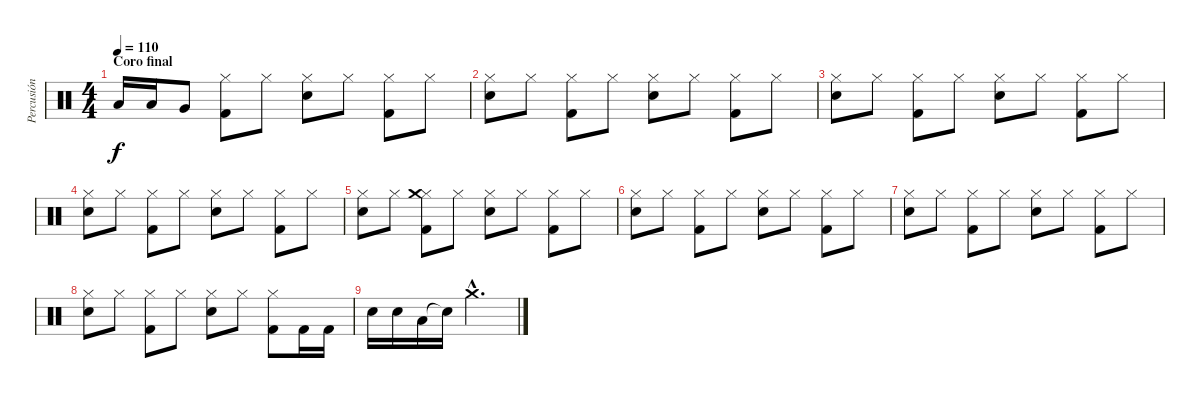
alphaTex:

\track ("Percusión" "Percusión") {instrument percussion}
\staff {score}
\articulation defaults
\ts (4 4)
\section ("" "Coro final")
\tempo 110
\clef neutral
\ks c "Low Tom (hit)".16{dy f} "Low Tom (hit)".16 "Very Low Tom (hit)".8
("Hi-Hat (closed)" "Kick (hit) 2").8 "Hi-Hat (closed)".8 ("Hi-Hat (closed)" "Electric Snare (hit)").8 "Hi-Hat (closed)".8 ("Hi-Hat (closed)" "Kick (hit) 2").8 "Hi-Hat (closed)".8 |
("Hi-Hat (closed)" "Electric Snare (hit)").8 "Hi-Hat (closed)".8 ("Hi-Hat (closed)" "Kick (hit) 2").8 "Hi-Hat (closed)".8 ("Hi-Hat (closed)" "Electric Snare (hit)").8 "Hi-Hat (closed)".8 ("Hi-Hat (closed)" "Kick (hit) 2").8 "Hi-Hat (closed)".8 |
("Hi-Hat (closed)" "Electric Snare (hit)").8 "Hi-Hat (closed)".8 ("Hi-Hat (closed)" "Kick (hit) 2").8 "Hi-Hat (closed)".8 ("Hi-Hat (closed)" "Electric Snare (hit)").8 "Hi-Hat (closed)".8 ("Hi-Hat (closed)" "Kick (hit) 2").8 "Hi-Hat (closed)".8 |
("Hi-Hat (closed)" "Electric Snare (hit)").8 "Hi-Hat (closed)".8 ("Hi-Hat (closed)" "Kick (hit) 2").8 "Hi-Hat (closed)".8 ("Hi-Hat (closed)" "Electric Snare (hit)").8 "Hi-Hat (closed)".8 ("Hi-Hat (closed)" "Kick (hit) 2").8 "Hi-Hat (closed)".8 |
("Hi-Hat (closed)" "Electric Snare (hit)").8 "Hi-Hat (closed)".8 ("Hi-Hat (closed)" "Kick (hit) 2" "Crash medium (hit)").8 "Hi-Hat (closed)".8 ("Hi-Hat (closed)" "Electric Snare (hit)").8 "Hi-Hat (closed)".8 ("Hi-Hat (closed)" "Kick (hit) 2").8 "Hi-Hat (closed)".8 |
("Hi-Hat (closed)" "Electric Snare (hit)").8 "Hi-Hat (closed)".8 ("Hi-Hat (closed)" "Kick (hit) 2").8 "Hi-Hat (closed)".8 ("Hi-Hat (closed)" "Electric Snare (hit)").8 "Hi-Hat (closed)".8 ("Hi-Hat (closed)" "Kick (hit) 2").8 "Hi-Hat (closed)".8 |
("Hi-Hat (closed)" "Electric Snare (hit)").8 "Hi-Hat (closed)".8 ("Hi-Hat (closed)" "Kick (hit) 2").8 "Hi-Hat (closed)".8 ("Hi-Hat (closed)" "Electric Snare (hit)").8 "Hi-Hat (closed)".8 ("Hi-Hat (closed)" "Kick (hit) 2").8 "Hi-Hat (closed)".8 |
("Hi-Hat (closed)" "Electric Snare (hit)").8 "Hi-Hat (closed)".8 ("Hi-Hat (closed)" "Kick (hit) 2").8 "Hi-Hat (closed)".8 ("Hi-Hat (closed)" "Electric Snare (hit)").8 "Hi-Hat (closed)".8 ("Hi-Hat (closed)" "Kick (hit) 2").8 "Kick (hit) 2".16 "Kick (hit) 2".16 |
"Electric Snare (hit)".16 "Electric Snare (hit)".16 "Low Floor Tom (hit)".16 "Snare (hit)"{t}.16 "Crash medium (hit)"{hac}.2{d}
